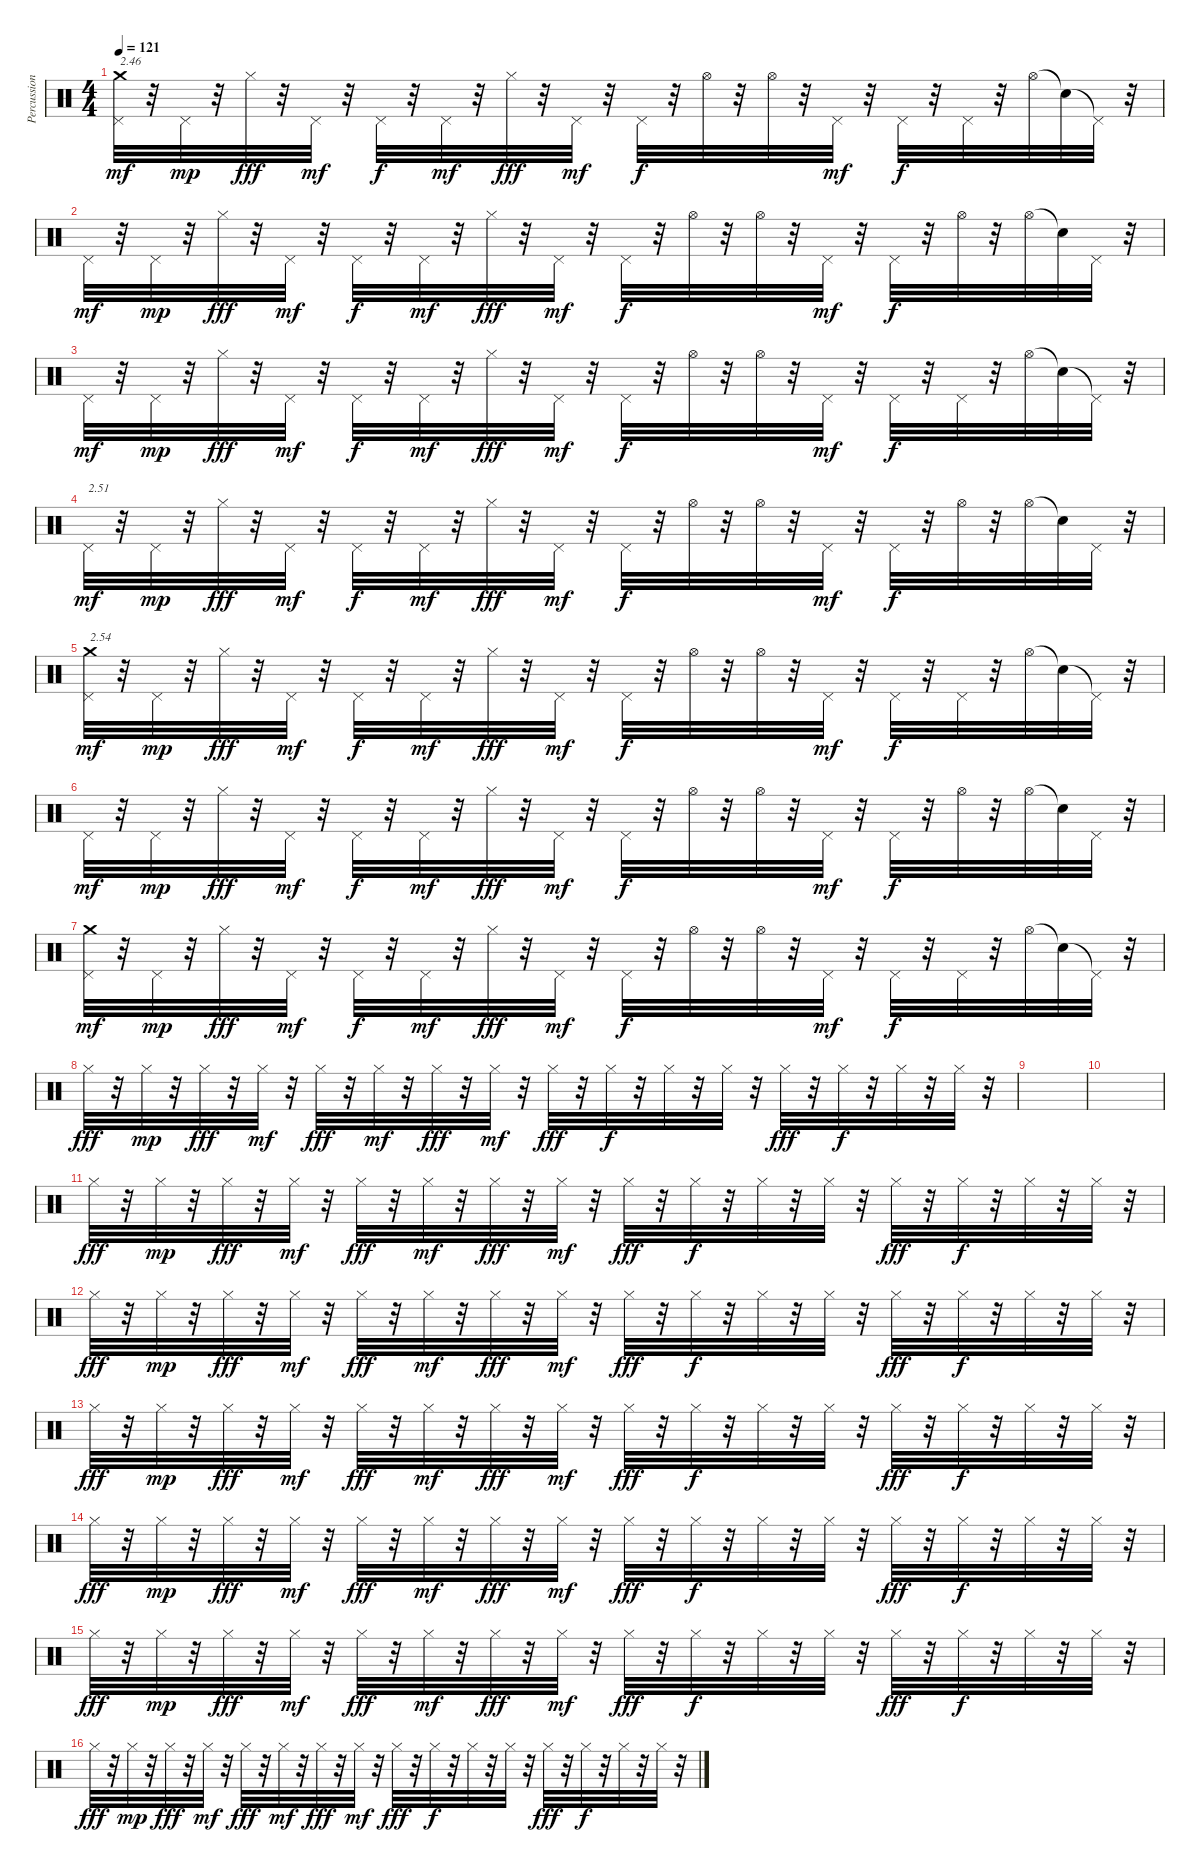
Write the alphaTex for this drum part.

\track ("Percussions" "Percussion") {instrument percussion}
\staff {score}
\articulation defaults
\ts (4 4)
\tempo 121
\clef neutral
\ks c
("Pedal Hi-Hat (hit)" "Crash medium (hit)").32{txt "2.46" dy mf} r.32 "Pedal Hi-Hat (hit)".32{dy mp} r.32 "Hi-Hat (closed)".32{dy fff} r.32 "Pedal Hi-Hat (hit)".32{dy mf} r.32 "Pedal Hi-Hat (hit)".32{dy f} r.32 "Pedal Hi-Hat (hit)".32{dy mf} r.32 "Hi-Hat (closed)".32{dy fff} r.32 "Pedal Hi-Hat (hit)".32{dy mf} r.32 "Pedal Hi-Hat (hit)".32{dy f} r.32 "Hi-Hat (open)".32 r.32 "Hi-Hat (open)".32 r.32 "Pedal Hi-Hat (hit)".32{dy mf} r.32 "Pedal Hi-Hat (hit)".32{dy f} r.32 "Pedal Hi-Hat (hit)".32 r.32 "Hi-Hat (open)".32 "Snare (hit)"{t}.32 "Pedal Hi-Hat (hit)"{t}.32 r.32 |
"Pedal Hi-Hat (hit)".32{dy mf} r.32 "Pedal Hi-Hat (hit)".32{dy mp} r.32 "Hi-Hat (closed)".32{dy fff} r.32 "Pedal Hi-Hat (hit)".32{dy mf} r.32 "Pedal Hi-Hat (hit)".32{dy f} r.32 "Pedal Hi-Hat (hit)".32{dy mf} r.32 "Hi-Hat (closed)".32{dy fff} r.32 "Pedal Hi-Hat (hit)".32{dy mf} r.32 "Pedal Hi-Hat (hit)".32{dy f} r.32 "Hi-Hat (open)".32 r.32 "Hi-Hat (open)".32 r.32 "Pedal Hi-Hat (hit)".32{dy mf} r.32 "Pedal Hi-Hat (hit)".32{dy f} r.32 "Hi-Hat (open)".32 r.32 "Hi-Hat (open)".32 "Snare (hit)"{t}.32 "Pedal Hi-Hat (hit)".32 r.32 |
"Pedal Hi-Hat (hit)".32{dy mf} r.32 "Pedal Hi-Hat (hit)".32{dy mp} r.32 "Hi-Hat (closed)".32{dy fff} r.32 "Pedal Hi-Hat (hit)".32{dy mf} r.32 "Pedal Hi-Hat (hit)".32{dy f} r.32 "Pedal Hi-Hat (hit)".32{dy mf} r.32 "Hi-Hat (closed)".32{dy fff} r.32 "Pedal Hi-Hat (hit)".32{dy mf} r.32 "Pedal Hi-Hat (hit)".32{dy f} r.32 "Hi-Hat (open)".32 r.32 "Hi-Hat (open)".32 r.32 "Pedal Hi-Hat (hit)".32{dy mf} r.32 "Pedal Hi-Hat (hit)".32{dy f} r.32 "Pedal Hi-Hat (hit)".32 r.32 "Hi-Hat (open)".32 "Snare (hit)"{t}.32 "Pedal Hi-Hat (hit)"{t}.32 r.32 |
"Pedal Hi-Hat (hit)".32{txt "2.51" dy mf} r.32 "Pedal Hi-Hat (hit)".32{dy mp} r.32 "Hi-Hat (closed)".32{dy fff} r.32 "Pedal Hi-Hat (hit)".32{dy mf} r.32 "Pedal Hi-Hat (hit)".32{dy f} r.32 "Pedal Hi-Hat (hit)".32{dy mf} r.32 "Hi-Hat (closed)".32{dy fff} r.32 "Pedal Hi-Hat (hit)".32{dy mf} r.32 "Pedal Hi-Hat (hit)".32{dy f} r.32 "Hi-Hat (open)".32 r.32 "Hi-Hat (open)".32 r.32 "Pedal Hi-Hat (hit)".32{dy mf} r.32 "Pedal Hi-Hat (hit)".32{dy f} r.32 "Hi-Hat (open)".32 r.32 "Hi-Hat (open)".32 "Snare (hit)"{t}.32 "Pedal Hi-Hat (hit)".32 r.32 |
("Pedal Hi-Hat (hit)" "Crash medium (hit)").32{txt "2.54" dy mf} r.32 "Pedal Hi-Hat (hit)".32{dy mp} r.32 "Hi-Hat (closed)".32{dy fff} r.32 "Pedal Hi-Hat (hit)".32{dy mf} r.32 "Pedal Hi-Hat (hit)".32{dy f} r.32 "Pedal Hi-Hat (hit)".32{dy mf} r.32 "Hi-Hat (closed)".32{dy fff} r.32 "Pedal Hi-Hat (hit)".32{dy mf} r.32 "Pedal Hi-Hat (hit)".32{dy f} r.32 "Hi-Hat (open)".32 r.32 "Hi-Hat (open)".32 r.32 "Pedal Hi-Hat (hit)".32{dy mf} r.32 "Pedal Hi-Hat (hit)".32{dy f} r.32 "Pedal Hi-Hat (hit)".32 r.32 "Hi-Hat (open)".32 "Snare (hit)"{t}.32 "Pedal Hi-Hat (hit)"{t}.32 r.32 |
"Pedal Hi-Hat (hit)".32{dy mf} r.32 "Pedal Hi-Hat (hit)".32{dy mp} r.32 "Hi-Hat (closed)".32{dy fff} r.32 "Pedal Hi-Hat (hit)".32{dy mf} r.32 "Pedal Hi-Hat (hit)".32{dy f} r.32 "Pedal Hi-Hat (hit)".32{dy mf} r.32 "Hi-Hat (closed)".32{dy fff} r.32 "Pedal Hi-Hat (hit)".32{dy mf} r.32 "Pedal Hi-Hat (hit)".32{dy f} r.32 "Hi-Hat (open)".32 r.32 "Hi-Hat (open)".32 r.32 "Pedal Hi-Hat (hit)".32{dy mf} r.32 "Pedal Hi-Hat (hit)".32{dy f} r.32 "Hi-Hat (open)".32 r.32 "Hi-Hat (open)".32 "Snare (hit)"{t}.32 "Pedal Hi-Hat (hit)".32 r.32 |
("Pedal Hi-Hat (hit)" "Crash medium (hit)").32{dy mf} r.32 "Pedal Hi-Hat (hit)".32{dy mp} r.32 "Hi-Hat (closed)".32{dy fff} r.32 "Pedal Hi-Hat (hit)".32{dy mf} r.32 "Pedal Hi-Hat (hit)".32{dy f} r.32 "Pedal Hi-Hat (hit)".32{dy mf} r.32 "Hi-Hat (closed)".32{dy fff} r.32 "Pedal Hi-Hat (hit)".32{dy mf} r.32 "Pedal Hi-Hat (hit)".32{dy f} r.32 "Hi-Hat (open)".32 r.32 "Hi-Hat (open)".32 r.32 "Pedal Hi-Hat (hit)".32{dy mf} r.32 "Pedal Hi-Hat (hit)".32{dy f} r.32 "Pedal Hi-Hat (hit)".32 r.32 "Hi-Hat (open)".32 "Snare (hit)"{t}.32 "Pedal Hi-Hat (hit)"{t}.32 r.32 |
"Hi-Hat (closed)".32{dy fff} r.32 "Hi-Hat (closed)".32{dy mp} r.32 "Hi-Hat (closed)".32{dy fff} r.32 "Hi-Hat (closed)".32{dy mf} r.32 "Hi-Hat (closed)".32{dy fff} r.32 "Hi-Hat (closed)".32{dy mf} r.32 "Hi-Hat (closed)".32{dy fff} r.32 "Hi-Hat (closed)".32{dy mf} r.32 "Hi-Hat (closed)".32{dy fff} r.32 "Hi-Hat (closed)".32{dy f} r.32 "Hi-Hat (closed)".32 r.32 "Hi-Hat (closed)".32 r.32 "Hi-Hat (closed)".32{dy fff} r.32 "Hi-Hat (closed)".32{dy f} r.32 "Hi-Hat (closed)".32 r.32 "Hi-Hat (closed)".32 r.32 |
|
|
"Hi-Hat (closed)".32{dy fff} r.32 "Hi-Hat (closed)".32{dy mp} r.32 "Hi-Hat (closed)".32{dy fff} r.32 "Hi-Hat (closed)".32{dy mf} r.32 "Hi-Hat (closed)".32{dy fff} r.32 "Hi-Hat (closed)".32{dy mf} r.32 "Hi-Hat (closed)".32{dy fff} r.32 "Hi-Hat (closed)".32{dy mf} r.32 "Hi-Hat (closed)".32{dy fff} r.32 "Hi-Hat (closed)".32{dy f} r.32 "Hi-Hat (closed)".32 r.32 "Hi-Hat (closed)".32 r.32 "Hi-Hat (closed)".32{dy fff} r.32 "Hi-Hat (closed)".32{dy f} r.32 "Hi-Hat (closed)".32 r.32 "Hi-Hat (closed)".32 r.32 |
"Hi-Hat (closed)".32{dy fff} r.32 "Hi-Hat (closed)".32{dy mp} r.32 "Hi-Hat (closed)".32{dy fff} r.32 "Hi-Hat (closed)".32{dy mf} r.32 "Hi-Hat (closed)".32{dy fff} r.32 "Hi-Hat (closed)".32{dy mf} r.32 "Hi-Hat (closed)".32{dy fff} r.32 "Hi-Hat (closed)".32{dy mf} r.32 "Hi-Hat (closed)".32{dy fff} r.32 "Hi-Hat (closed)".32{dy f} r.32 "Hi-Hat (closed)".32 r.32 "Hi-Hat (closed)".32 r.32 "Hi-Hat (closed)".32{dy fff} r.32 "Hi-Hat (closed)".32{dy f} r.32 "Hi-Hat (closed)".32 r.32 "Hi-Hat (closed)".32 r.32 |
"Hi-Hat (closed)".32{dy fff} r.32 "Hi-Hat (closed)".32{dy mp} r.32 "Hi-Hat (closed)".32{dy fff} r.32 "Hi-Hat (closed)".32{dy mf} r.32 "Hi-Hat (closed)".32{dy fff} r.32 "Hi-Hat (closed)".32{dy mf} r.32 "Hi-Hat (closed)".32{dy fff} r.32 "Hi-Hat (closed)".32{dy mf} r.32 "Hi-Hat (closed)".32{dy fff} r.32 "Hi-Hat (closed)".32{dy f} r.32 "Hi-Hat (closed)".32 r.32 "Hi-Hat (closed)".32 r.32 "Hi-Hat (closed)".32{dy fff} r.32 "Hi-Hat (closed)".32{dy f} r.32 "Hi-Hat (closed)".32 r.32 "Hi-Hat (closed)".32 r.32 |
"Hi-Hat (closed)".32{dy fff} r.32 "Hi-Hat (closed)".32{dy mp} r.32 "Hi-Hat (closed)".32{dy fff} r.32 "Hi-Hat (closed)".32{dy mf} r.32 "Hi-Hat (closed)".32{dy fff} r.32 "Hi-Hat (closed)".32{dy mf} r.32 "Hi-Hat (closed)".32{dy fff} r.32 "Hi-Hat (closed)".32{dy mf} r.32 "Hi-Hat (closed)".32{dy fff} r.32 "Hi-Hat (closed)".32{dy f} r.32 "Hi-Hat (closed)".32 r.32 "Hi-Hat (closed)".32 r.32 "Hi-Hat (closed)".32{dy fff} r.32 "Hi-Hat (closed)".32{dy f} r.32 "Hi-Hat (closed)".32 r.32 "Hi-Hat (closed)".32 r.32 |
"Hi-Hat (closed)".32{dy fff} r.32 "Hi-Hat (closed)".32{dy mp} r.32 "Hi-Hat (closed)".32{dy fff} r.32 "Hi-Hat (closed)".32{dy mf} r.32 "Hi-Hat (closed)".32{dy fff} r.32 "Hi-Hat (closed)".32{dy mf} r.32 "Hi-Hat (closed)".32{dy fff} r.32 "Hi-Hat (closed)".32{dy mf} r.32 "Hi-Hat (closed)".32{dy fff} r.32 "Hi-Hat (closed)".32{dy f} r.32 "Hi-Hat (closed)".32 r.32 "Hi-Hat (closed)".32 r.32 "Hi-Hat (closed)".32{dy fff} r.32 "Hi-Hat (closed)".32{dy f} r.32 "Hi-Hat (closed)".32 r.32 "Hi-Hat (closed)".32 r.32 |
"Hi-Hat (closed)".32{dy fff} r.32 "Hi-Hat (closed)".32{dy mp} r.32 "Hi-Hat (closed)".32{dy fff} r.32 "Hi-Hat (closed)".32{dy mf} r.32 "Hi-Hat (closed)".32{dy fff} r.32 "Hi-Hat (closed)".32{dy mf} r.32 "Hi-Hat (closed)".32{dy fff} r.32 "Hi-Hat (closed)".32{dy mf} r.32 "Hi-Hat (closed)".32{dy fff} r.32 "Hi-Hat (closed)".32{dy f} r.32 "Hi-Hat (closed)".32 r.32 "Hi-Hat (closed)".32 r.32 "Hi-Hat (closed)".32{dy fff} r.32 "Hi-Hat (closed)".32{dy f} r.32 "Hi-Hat (closed)".32 r.32 "Hi-Hat (closed)".32 r.32
